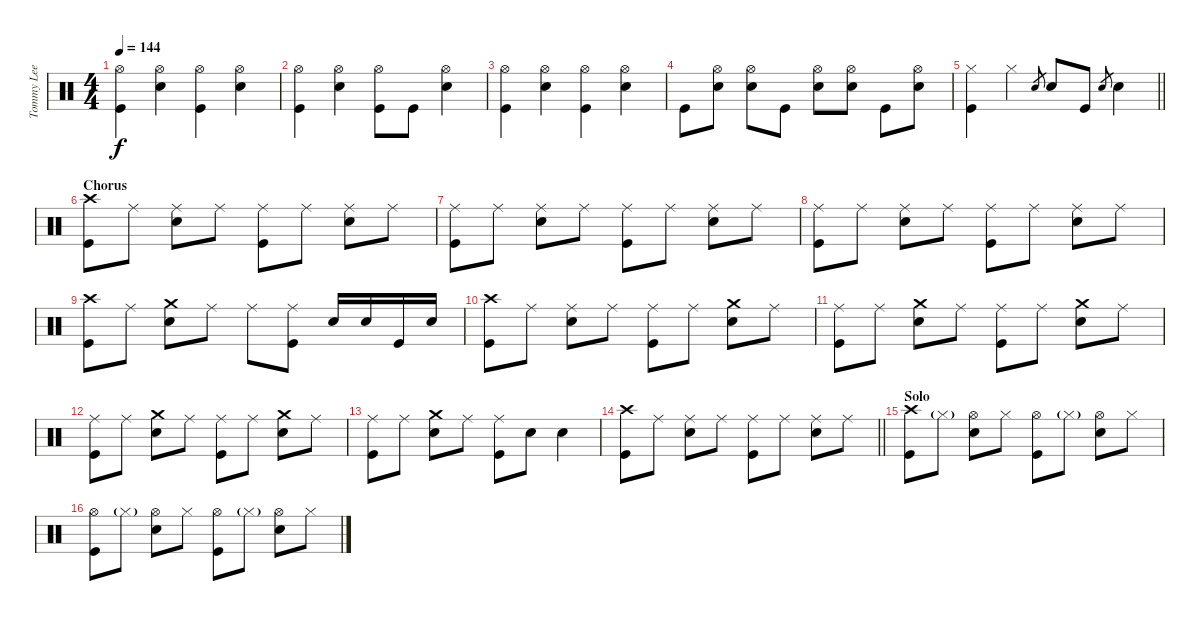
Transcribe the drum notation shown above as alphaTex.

\track ("Tommy Lee" "Tommy Lee") {instrument percussion}
\staff {score}
\articulation defaults
\ts (4 4)
\tempo 144
\clef neutral
\ks c
("Hi-Hat (open)" "Kick (hit)").4{dy f} ("Hi-Hat (open)" "Snare (hit) 2").4 ("Hi-Hat (open)" "Kick (hit)").4 ("Hi-Hat (open)" "Snare (hit) 2").4 |
("Hi-Hat (open)" "Kick (hit)").4 ("Hi-Hat (open)" "Snare (hit) 2").4 ("Hi-Hat (open)" "Kick (hit)").8 "Kick (hit)".8 ("Hi-Hat (open)" "Snare (hit) 2").4 |
("Hi-Hat (open)" "Kick (hit)").4 ("Hi-Hat (open)" "Snare (hit) 2").4 ("Hi-Hat (open)" "Kick (hit)").4 ("Hi-Hat (open)" "Snare (hit) 2").4 |
"Kick (hit)".8 ("Hi-Hat (open)" "Snare (hit) 2").8 ("Hi-Hat (open)" "Snare (hit) 2").8 "Kick (hit)".8 ("Hi-Hat (open)" "Snare (hit) 2").8 ("Hi-Hat (open)" "Snare (hit) 2").8 "Kick (hit)".8 ("Hi-Hat (open)" "Snare (hit) 2").8 |
\barLineRight lightlight
("Hi-Hat (closed)" "Kick (hit)").4 "Hi-Hat (closed)".4 "Snare (hit) 2".8{gr} "Snare (hit) 2".8 "Kick (hit)".8 "Snare (hit) 2".8{gr} "Snare (hit) 2".4 |
\section ("" "Chorus")
("Crash high (hit)" "Kick (hit)").8 "Ride (middle)".8 ("Ride (middle)" "Snare (hit) 2").8 "Ride (middle)".8 ("Ride (middle)" "Kick (hit)").8 "Ride (middle)".8 ("Ride (middle)" "Snare (hit) 2").8 "Ride (middle)".8 |
("Ride (middle)" "Kick (hit)").8 "Ride (middle)".8 ("Ride (middle)" "Snare (hit) 2").8 "Ride (middle)".8 ("Ride (middle)" "Kick (hit)").8 "Ride (middle)".8 ("Ride (middle)" "Snare (hit) 2").8 "Ride (middle)".8 |
("Ride (middle)" "Kick (hit)").8 "Ride (middle)".8 ("Ride (middle)" "Snare (hit) 2").8 "Ride (middle)".8 ("Ride (middle)" "Kick (hit)").8 "Ride (middle)".8 ("Ride (middle)" "Snare (hit) 2").8 "Ride (middle)".8 |
("Crash high (hit)" "Kick (hit)").8 "Ride (middle)".8 ("Crash medium (hit)" "Snare (hit) 2").8 "Ride (middle)".8 "Ride (middle)".8 ("Ride (middle)" "Kick (hit)").8 "Snare (hit) 2".16 "Snare (hit) 2".16 "Kick (hit)".16 "Snare (hit) 2".16 |
("Crash high (hit)" "Kick (hit)").8 "Ride (middle)".8 ("Ride (middle)" "Snare (hit) 2").8 "Ride (middle)".8 ("Ride (middle)" "Kick (hit)").8 "Ride (middle)".8 ("Crash medium (hit)" "Snare (hit) 2").8 "Ride (middle)".8 |
("Ride (middle)" "Kick (hit)").8 "Ride (middle)".8 ("Crash medium (hit)" "Snare (hit) 2").8 "Ride (middle)".8 ("Ride (middle)" "Kick (hit)").8 "Ride (middle)".8 ("Crash medium (hit)" "Snare (hit) 2").8 "Ride (middle)".8 |
("Ride (middle)" "Kick (hit)").8 "Ride (middle)".8 ("Crash medium (hit)" "Snare (hit) 2").8 "Ride (middle)".8 ("Ride (middle)" "Kick (hit)").8 "Ride (middle)".8 ("Crash medium (hit)" "Snare (hit) 2").8 "Ride (middle)".8 |
("Ride (middle)" "Kick (hit)").8 "Ride (middle)".8 ("Crash medium (hit)" "Snare (hit) 2").8 "Ride (middle)".8 ("Ride (middle)" "Kick (hit)").8 "Snare (hit) 2".8 "Snare (hit) 2".4 |
\barLineRight lightlight
("Crash high (hit)" "Kick (hit)").8 "Ride (middle)".8 ("Ride (middle)" "Snare (hit) 2").8 "Ride (middle)".8 ("Ride (middle)" "Kick (hit)").8 "Ride (middle)".8 ("Ride (middle)" "Snare (hit) 2").8 "Ride (middle)".8 |
\section ("" "Solo")
("Crash high (hit)" "Kick (hit)").8 "Hi-Hat (closed)"{g}.8 ("Hi-Hat (open)" "Snare (hit) 2").8 "Hi-Hat (closed)".8 ("Hi-Hat (open)" "Kick (hit)").8 "Hi-Hat (closed)"{g}.8 ("Hi-Hat (open)" "Snare (hit) 2").8 "Hi-Hat (closed)".8 |
("Hi-Hat (open)" "Kick (hit)").8 "Hi-Hat (closed)"{g}.8 ("Hi-Hat (open)" "Snare (hit) 2").8 "Hi-Hat (closed)".8 ("Hi-Hat (open)" "Kick (hit)").8 "Hi-Hat (closed)"{g}.8 ("Hi-Hat (open)" "Snare (hit) 2").8 "Hi-Hat (closed)".8
